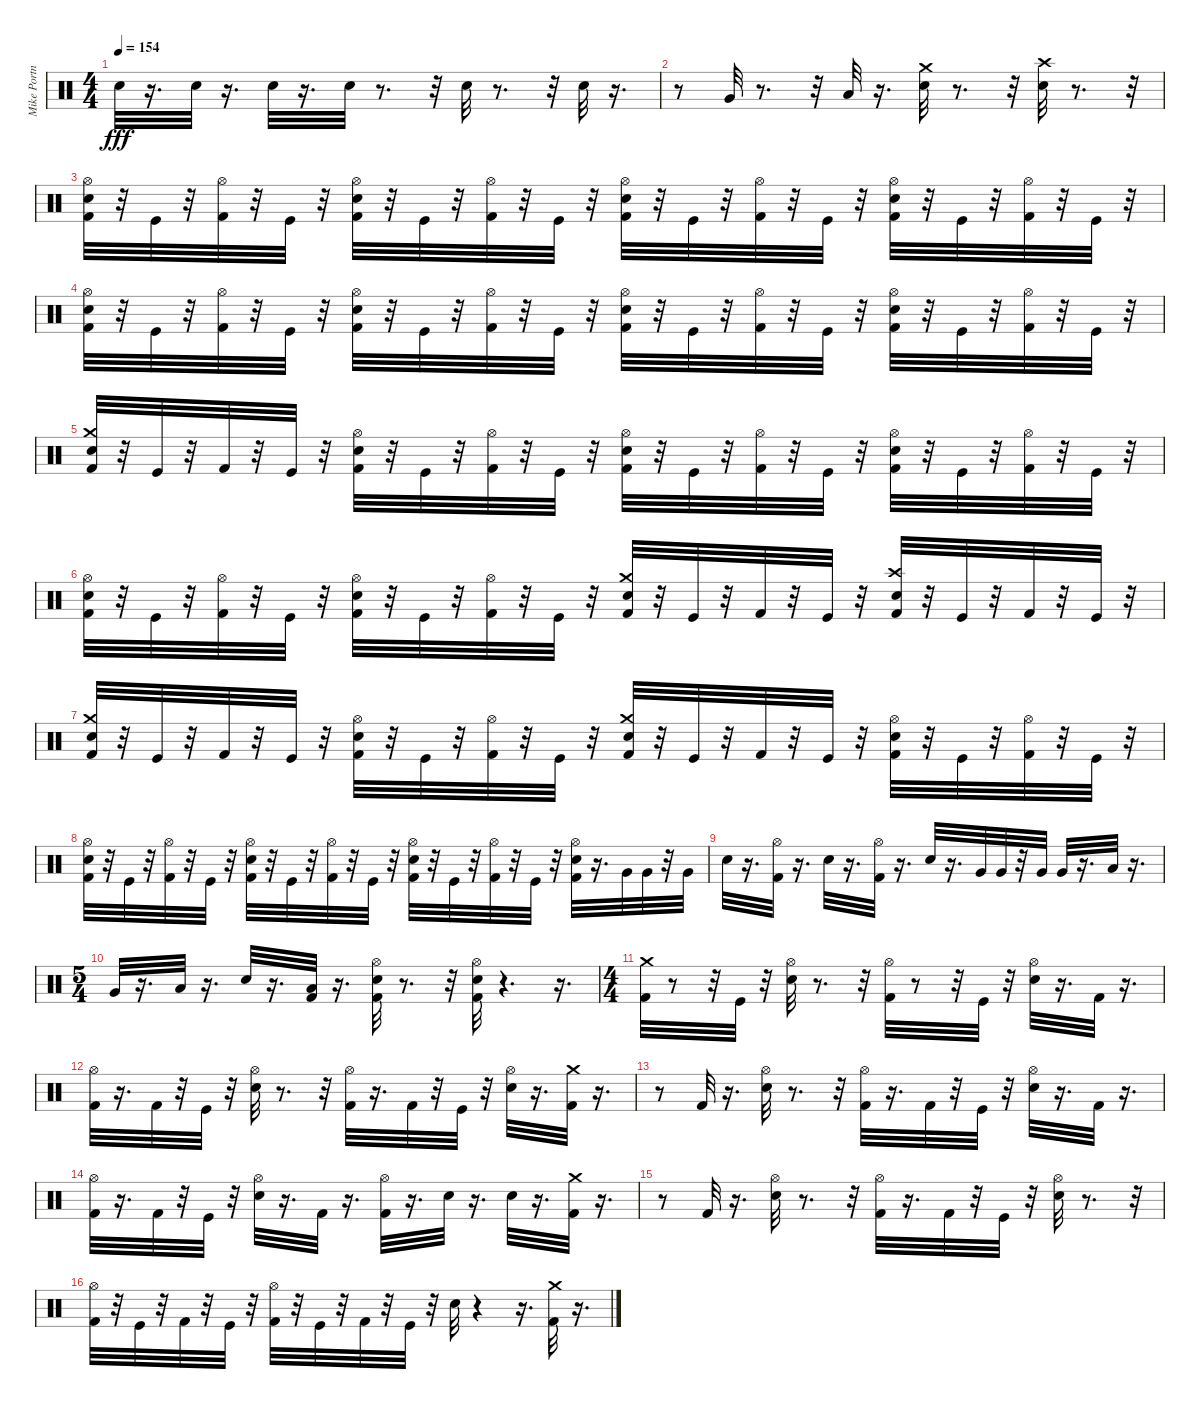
\track ("Mike Portnoy" "Mike Portn") {instrument percussion}
\staff {score}
\articulation defaults
\ts (4 4)
\tempo 154
\clef neutral
\ks c "Snare (hit) 2".32{dy fff}
r.16{d} "Snare (hit) 2".32 r.16{d} "Snare (hit) 2".32 r.16{d} "Snare (hit) 2".32 r.8{d} r.32 "Snare (hit) 2".32 r.8{d} r.32 "Snare (hit) 2".32 r.16{d} |
r.8 "Very Low Tom (hit)".32 r.8{d} r.32 "Low Floor Tom (hit)".32 r.16{d} ("Crash medium (hit)" "Snare (hit) 2").32 r.8{d} r.32 ("Crash high (hit)" "Snare (hit) 2").32 r.8{d} r.32 |
("Kick (hit) 2" "Snare (hit) 2" "Hi-Hat (open)").32 r.32 "Kick (hit)".32 r.32 ("Kick (hit) 2" "Hi-Hat (open)").32 r.32 "Kick (hit)".32 r.32 ("Kick (hit) 2" "Snare (hit) 2" "Hi-Hat (open)").32 r.32 "Kick (hit)".32 r.32 ("Kick (hit) 2" "Hi-Hat (open)").32 r.32 "Kick (hit)".32 r.32 ("Kick (hit) 2" "Snare (hit) 2" "Hi-Hat (open)").32 r.32 "Kick (hit)".32 r.32 ("Kick (hit) 2" "Hi-Hat (open)").32 r.32 "Kick (hit)".32 r.32 ("Kick (hit) 2" "Snare (hit) 2" "Hi-Hat (open)").32 r.32 "Kick (hit)".32 r.32 ("Kick (hit) 2" "Hi-Hat (open)").32 r.32 "Kick (hit)".32 r.32 |
("Kick (hit) 2" "Snare (hit) 2" "Hi-Hat (open)").32 r.32 "Kick (hit)".32 r.32 ("Kick (hit) 2" "Hi-Hat (open)").32 r.32 "Kick (hit)".32 r.32 ("Kick (hit) 2" "Snare (hit) 2" "Hi-Hat (open)").32 r.32 "Kick (hit)".32 r.32 ("Kick (hit) 2" "Hi-Hat (open)").32 r.32 "Kick (hit)".32 r.32 ("Kick (hit) 2" "Snare (hit) 2" "Hi-Hat (open)").32 r.32 "Kick (hit)".32 r.32 ("Kick (hit) 2" "Hi-Hat (open)").32 r.32 "Kick (hit)".32 r.32 ("Kick (hit) 2" "Snare (hit) 2" "Hi-Hat (open)").32 r.32 "Kick (hit)".32 r.32 ("Kick (hit) 2" "Hi-Hat (open)").32 r.32 "Kick (hit)".32 r.32 |
("Kick (hit) 2" "Snare (hit) 2" "Crash medium (hit)").32 r.32 "Kick (hit)".32 r.32 "Kick (hit) 2".32 r.32 "Kick (hit)".32 r.32 ("Kick (hit) 2" "Snare (hit) 2" "Hi-Hat (open)").32 r.32 "Kick (hit)".32 r.32 ("Kick (hit) 2" "Hi-Hat (open)").32 r.32 "Kick (hit)".32 r.32 ("Kick (hit) 2" "Snare (hit) 2" "Hi-Hat (open)").32 r.32 "Kick (hit)".32 r.32 ("Kick (hit) 2" "Hi-Hat (open)").32 r.32 "Kick (hit)".32 r.32 ("Kick (hit) 2" "Snare (hit) 2" "Hi-Hat (open)").32 r.32 "Kick (hit)".32 r.32 ("Kick (hit) 2" "Hi-Hat (open)").32 r.32 "Kick (hit)".32 r.32 |
("Kick (hit) 2" "Snare (hit) 2" "Hi-Hat (open)").32 r.32 "Kick (hit)".32 r.32 ("Kick (hit) 2" "Hi-Hat (open)").32 r.32 "Kick (hit)".32 r.32 ("Kick (hit) 2" "Snare (hit) 2" "Hi-Hat (open)").32 r.32 "Kick (hit)".32 r.32 ("Kick (hit) 2" "Hi-Hat (open)").32 r.32 "Kick (hit)".32 r.32 ("Crash medium (hit)" "Kick (hit) 2" "Snare (hit) 2").32 r.32 "Kick (hit)".32 r.32 "Kick (hit) 2".32 r.32 "Kick (hit)".32 r.32 ("Crash high (hit)" "Kick (hit) 2" "Snare (hit) 2").32 r.32 "Kick (hit)".32 r.32 "Kick (hit) 2".32 r.32 "Kick (hit)".32 r.32 |
("Kick (hit) 2" "Snare (hit) 2" "Crash medium (hit)").32 r.32 "Kick (hit)".32 r.32 "Kick (hit) 2".32 r.32 "Kick (hit)".32 r.32 ("Kick (hit) 2" "Snare (hit) 2" "Hi-Hat (open)").32 r.32 "Kick (hit)".32 r.32 ("Kick (hit) 2" "Hi-Hat (open)").32 r.32 "Kick (hit)".32 r.32 ("Kick (hit) 2" "Snare (hit) 2" "Crash medium (hit)").32 r.32 "Kick (hit)".32 r.32 "Kick (hit) 2".32 r.32 "Kick (hit)".32 r.32 ("Kick (hit) 2" "Snare (hit) 2" "Hi-Hat (open)").32 r.32 "Kick (hit)".32 r.32 ("Kick (hit) 2" "Hi-Hat (open)").32 r.32 "Kick (hit)".32 r.32 |
("Kick (hit) 2" "Snare (hit) 2" "Hi-Hat (open)").32 r.32 "Kick (hit)".32 r.32 ("Kick (hit) 2" "Hi-Hat (open)").32 r.32 "Kick (hit)".32 r.32 ("Kick (hit) 2" "Snare (hit) 2" "Hi-Hat (open)").32 r.32 "Kick (hit)".32 r.32 ("Kick (hit) 2" "Hi-Hat (open)").32 r.32 "Kick (hit)".32 r.32 ("Kick (hit) 2" "Snare (hit) 2" "Hi-Hat (open)").32 r.32 "Kick (hit)".32 r.32 ("Kick (hit) 2" "Hi-Hat (open)").32 r.32 "Kick (hit)".32 r.32 ("Kick (hit) 2" "Snare (hit) 2" "Hi-Hat (open)").32 r.16{d} "Very Low Tom (hit)".32 "Very Low Tom (hit)".32 r.32 "Very Low Tom (hit)".32 |
"Snare (hit) 2".32 r.16{d} ("Kick (hit) 2" "Hi-Hat (open)").32 r.16{d} "Snare (hit) 2".32 r.16{d} ("Kick (hit) 2" "Hi-Hat (open)").32 r.16{d} "Snare (hit) 2".32 r.16{d} "Very Low Tom (hit)".32 "Very Low Tom (hit)".32 r.32 "Very Low Tom (hit)".32 "Very Low Tom (hit)".32 r.16{d} "Low Floor Tom (hit)".32 r.16{d} |
\ts (5 4)
"Very Low Tom (hit)".32 r.16{d} "Low Floor Tom (hit)".32 r.16{d} "Snare (hit) 2".32 r.16{d} ("Kick (hit) 2" "Low Floor Tom (hit)").32 r.16{d} ("Snare (hit) 2" "Kick (hit) 2" "Hi-Hat (open)").32 r.8{d} r.32 ("Snare (hit) 2" "Kick (hit) 2" "Hi-Hat (open)").32 r.4{d} r.16{d} |
\ts (4 4)
("Kick (hit) 2" "Crash medium (hit)").32 r.8 r.32 "Kick (hit)".32 r.32 ("Snare (hit) 2" "Hi-Hat (open)").32 r.8{d} r.32 ("Kick (hit) 2" "Hi-Hat (open)").32 r.8 r.32 "Kick (hit)".32 r.32 ("Snare (hit) 2" "Hi-Hat (open)").32 r.16{d} "Kick (hit) 2".32 r.16{d} |
("Kick (hit) 2" "Hi-Hat (open)").32 r.16{d} "Kick (hit) 2".32 r.32 "Kick (hit)".32 r.32 ("Snare (hit) 2" "Hi-Hat (open)").32 r.8{d} r.32 ("Kick (hit) 2" "Hi-Hat (open)").32 r.16{d} "Kick (hit) 2".32 r.32 "Kick (hit)".32 r.32 ("Snare (hit) 2" "Hi-Hat (open)").32 r.16{d} ("Kick (hit) 2" "Crash medium (hit)").32 r.16{d} |
r.8 "Kick (hit) 2".32 r.16{d} ("Snare (hit) 2" "Hi-Hat (open)").32 r.8{d} r.32 ("Kick (hit) 2" "Hi-Hat (open)").32 r.16{d} "Kick (hit) 2".32 r.32 "Kick (hit)".32 r.32 ("Snare (hit) 2" "Hi-Hat (open)").32 r.16{d} "Kick (hit) 2".32 r.16{d} |
("Kick (hit) 2" "Hi-Hat (open)").32 r.16{d} "Kick (hit) 2".32 r.32 "Kick (hit)".32 r.32 ("Snare (hit) 2" "Hi-Hat (open)").32 r.16{d} "Kick (hit) 2".32 r.16{d} ("Kick (hit) 2" "Hi-Hat (open)").32 r.16{d} "Snare (hit) 2".32 r.16{d} "Snare (hit) 2".32 r.16{d} ("Kick (hit) 2" "Crash medium (hit)").32 r.16{d} |
r.8 "Kick (hit) 2".32 r.16{d} ("Snare (hit) 2" "Hi-Hat (open)").32 r.8{d} r.32 ("Kick (hit) 2" "Hi-Hat (open)").32 r.16{d} "Kick (hit) 2".32 r.32 "Kick (hit)".32 r.32 ("Snare (hit) 2" "Hi-Hat (open)").32 r.8{d} r.32 |
("Kick (hit) 2" "Hi-Hat (open)").32 r.32 "Kick (hit)".32 r.32 "Kick (hit) 2".32 r.32 "Kick (hit)".32 r.32 ("Kick (hit) 2" "Hi-Hat (open)").32 r.32 "Kick (hit)".32 r.32 "Kick (hit) 2".32 r.32 "Kick (hit)".32 r.32 "Snare (hit) 2".32 r.4 r.16{d} ("Crash medium (hit)" "Kick (hit) 2").32 r.16{d}
